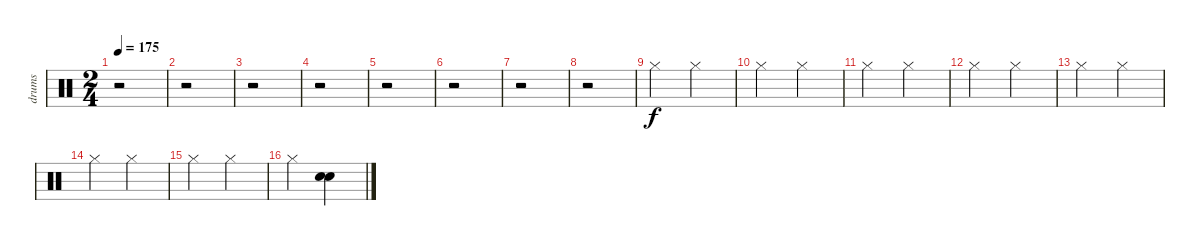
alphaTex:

\track ("drums" "drums") {instrument percussion}
\staff {score}
\articulation defaults
\ts (2 4)
\tempo 175
\clef neutral
\ks c
r.2{dy f} |
r.2 |
r.2 |
r.2 |
r.2 |
r.2 |
r.2 |
r.2 |
"Hi-Hat (closed)".4 "Hi-Hat (closed)".4 |
"Hi-Hat (closed)".4 "Hi-Hat (closed)".4 |
"Hi-Hat (closed)".4 "Hi-Hat (closed)".4 |
"Hi-Hat (closed)".4 "Hi-Hat (closed)".4 |
"Hi-Hat (closed)".4 "Hi-Hat (closed)".4 |
"Hi-Hat (closed)".4 "Hi-Hat (closed)".4 |
"Hi-Hat (closed)".4 "Hi-Hat (closed)".4 |
"Hi-Hat (closed)".4 ("Snare (hit) 2" "Electric Snare (hit)").4
